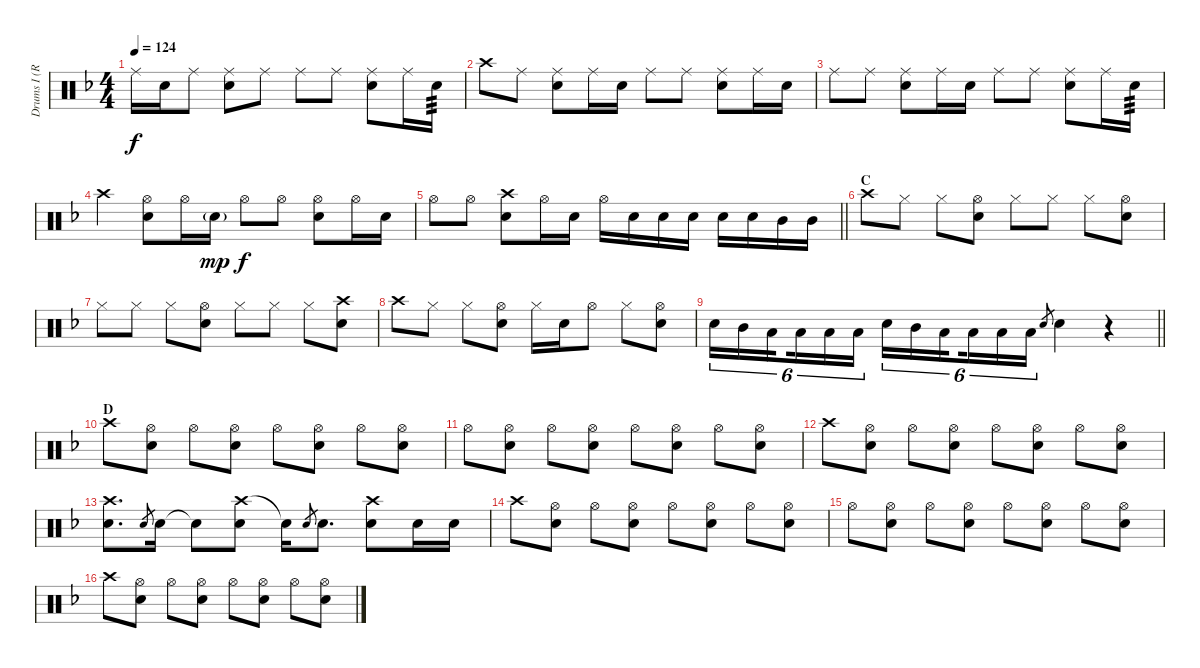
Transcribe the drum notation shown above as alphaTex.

\track ("Drums I (RUKA)" "Drums I (R") {instrument percussion}
\staff {score}
\articulation defaults
\ts (4 4)
\tempo 124
\clef neutral
\ks f "Ride (middle)".16{dy f} "Snare (hit) 2".16 "Ride (middle)".8
("Ride (middle)" "Snare (hit) 2").8 "Ride (middle)".8 "Ride (middle)".8 "Ride (middle)".8 ("Ride (middle)" "Snare (hit) 2").8 "Ride (middle)".16 "Snare (hit) 2".16{tp 3} |
"Crash high (hit)".8 "Ride (middle)".8 ("Ride (middle)" "Snare (hit) 2").8 "Ride (middle)".16 "Snare (hit) 2".16 "Ride (middle)".8 "Ride (middle)".8 ("Ride (middle)" "Snare (hit) 2").8 "Ride (middle)".16 "Snare (hit) 2".16 |
"Ride (middle)".8 "Ride (middle)".8 ("Ride (middle)" "Snare (hit) 2").8 "Ride (middle)".16 "Snare (hit) 2".16 "Ride (middle)".8 "Ride (middle)".8 ("Ride (middle)" "Snare (hit) 2").8 "Ride (middle)".16 "Snare (hit) 2".16{tp 3} |
"Crash high (hit)".4 ("Hi-Hat (open)" "Snare (hit) 2").8 "Hi-Hat (open)".16 "Snare (hit) 2"{g}.16{dy mp} "Hi-Hat (open)".8{dy f} "Hi-Hat (open)".8 ("Hi-Hat (open)" "Snare (hit) 2").8 "Hi-Hat (open)".16 "Snare (hit) 2".16 |
\barLineRight lightlight "Hi-Hat (open)".8 "Hi-Hat (open)".8
("Crash high (hit)" "Snare (hit) 2").8 "Hi-Hat (open)".16 "Snare (hit) 2".16 "Hi-Hat (open)".16 "Snare (hit) 2".16 "Snare (hit) 2".16 "Snare (hit) 2".16 "Snare (hit) 2".16 "Snare (hit) 2".16 "Mid Tom (hit)".16 "Mid Tom (hit)".16 |
\section ("" "C")
"Crash high (hit)".8 "Hi-Hat (closed)".8 "Hi-Hat (closed)".8 ("Hi-Hat (open)" "Snare (hit) 2").8 "Hi-Hat (closed)".8 "Hi-Hat (closed)".8 "Hi-Hat (closed)".8 ("Hi-Hat (open)" "Snare (hit) 2").8 |
"Hi-Hat (closed)".8 "Hi-Hat (closed)".8 "Hi-Hat (closed)".8 ("Hi-Hat (open)" "Snare (hit) 2").8 "Hi-Hat (closed)".8 "Hi-Hat (closed)".8 "Hi-Hat (closed)".8 ("Crash high (hit)" "Snare (hit) 2").8 |
"Crash high (hit)".8 "Hi-Hat (closed)".8 "Hi-Hat (closed)".8 ("Hi-Hat (open)" "Snare (hit) 2").8 "Hi-Hat (closed)".16 "Snare (hit) 2".16 "Hi-Hat (open)".8 "Hi-Hat (closed)".8 ("Hi-Hat (open)" "Snare (hit) 2").8 |
\barLineRight lightlight "Snare (hit) 2".16{tu (6 4)} "Mid Tom (hit)".16{tu (6 4)} "Low Tom (hit)".16{tu (6 4) beam splitsecondary} "Low Tom (hit)".16{tu (6 4)} "Low Floor Tom (hit)".16{tu (6 4)} "Low Floor Tom (hit)".16{tu (6 4)} "Snare (hit) 2".16{tu (6 4)} "Mid Tom (hit)".16{tu (6 4)} "Low Tom (hit)".16{tu (6 4) beam splitsecondary} "Low Tom (hit)".16{tu (6 4)} "Low Floor Tom (hit)".16{tu (6 4)} "Low Floor Tom (hit)".16{tu (6 4)} "Snare (hit) 2".8{gr} "Snare (hit) 2".4
r.4 |
\section ("" "D")
"Crash high (hit)".8 ("Hi-Hat (open)" "Snare (hit) 2").8 "Hi-Hat (open)".8 ("Hi-Hat (open)" "Snare (hit) 2").8 "Hi-Hat (open)".8 ("Hi-Hat (open)" "Snare (hit) 2").8 "Hi-Hat (open)".8 ("Hi-Hat (open)" "Snare (hit) 2").8 |
"Hi-Hat (open)".8 ("Hi-Hat (open)" "Snare (hit) 2").8 "Hi-Hat (open)".8 ("Hi-Hat (open)" "Snare (hit) 2").8 "Hi-Hat (open)".8 ("Hi-Hat (open)" "Snare (hit) 2").8 "Hi-Hat (open)".8 ("Hi-Hat (open)" "Snare (hit) 2").8 |
"Crash high (hit)".8 ("Hi-Hat (open)" "Snare (hit) 2").8 "Hi-Hat (open)".8 ("Hi-Hat (open)" "Snare (hit) 2").8 "Hi-Hat (open)".8 ("Hi-Hat (open)" "Snare (hit) 2").8 "Hi-Hat (open)".8 ("Hi-Hat (open)" "Snare (hit) 2").8 |
("Crash high (hit)" "Snare (hit) 2").8{d} "Snare (hit) 2".8{gr} "Snare (hit) 2".16 "Snare (hit)"{t}.8 ("Crash high (hit)" "Snare (hit) 2").8 "Snare (hit)"{t}.16 "Snare (hit) 2".8{gr} "Snare (hit) 2".8{d} ("Crash high (hit)" "Snare (hit) 2").8 "Snare (hit) 2".16 "Snare (hit) 2".16 |
"Crash high (hit)".8 ("Hi-Hat (open)" "Snare (hit) 2").8 "Hi-Hat (open)".8 ("Hi-Hat (open)" "Snare (hit) 2").8 "Hi-Hat (open)".8 ("Hi-Hat (open)" "Snare (hit) 2").8 "Hi-Hat (open)".8 ("Hi-Hat (open)" "Snare (hit) 2").8 |
"Hi-Hat (open)".8 ("Hi-Hat (open)" "Snare (hit) 2").8 "Hi-Hat (open)".8 ("Hi-Hat (open)" "Snare (hit) 2").8 "Hi-Hat (open)".8 ("Hi-Hat (open)" "Snare (hit) 2").8 "Hi-Hat (open)".8 ("Hi-Hat (open)" "Snare (hit) 2").8 |
"Crash high (hit)".8 ("Hi-Hat (open)" "Snare (hit) 2").8 "Hi-Hat (open)".8 ("Hi-Hat (open)" "Snare (hit) 2").8 "Hi-Hat (open)".8 ("Hi-Hat (open)" "Snare (hit) 2").8 "Hi-Hat (open)".8 ("Hi-Hat (open)" "Snare (hit) 2").8
